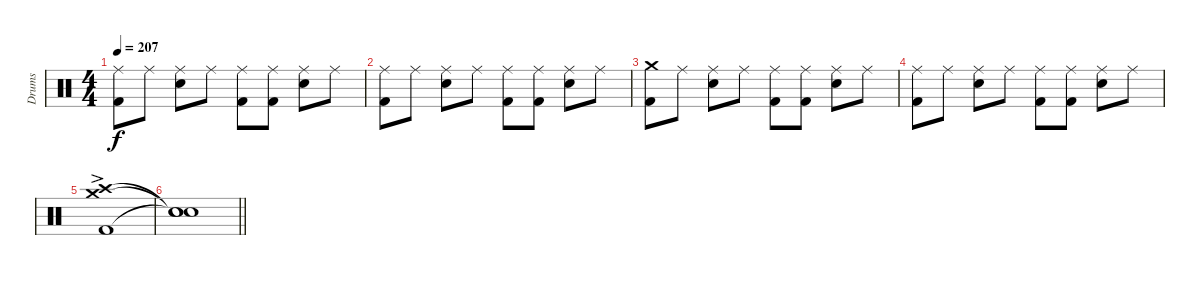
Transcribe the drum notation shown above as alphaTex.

\track ("Drums" "Drums") {instrument percussion}
\staff {score}
\articulation defaults
\ts (4 4)
\tempo 207
\clef neutral
\ks c
("Ride (middle)" "Kick (hit) 2").8{dy f} "Ride (middle)".8 ("Ride (middle)" "Electric Snare (hit)").8 "Ride (middle)".8 ("Ride (middle)" "Kick (hit) 2").8 ("Ride (middle)" "Kick (hit) 2").8 ("Ride (middle)" "Electric Snare (hit)").8 "Ride (middle)".8 |
("Ride (middle)" "Kick (hit) 2").8 "Ride (middle)".8 ("Ride (middle)" "Electric Snare (hit)").8 "Ride (middle)".8 ("Ride (middle)" "Kick (hit) 2").8 ("Ride (middle)" "Kick (hit) 2").8 ("Ride (middle)" "Electric Snare (hit)").8 "Ride (middle)".8 |
("Crash medium (hit)" "Kick (hit) 2").8 "Ride (middle)".8 ("Ride (middle)" "Electric Snare (hit)").8 "Ride (middle)".8 ("Ride (middle)" "Kick (hit) 2").8 ("Ride (middle)" "Kick (hit) 2").8 ("Ride (middle)" "Electric Snare (hit)").8 "Ride (middle)".8 |
("Ride (middle)" "Kick (hit) 2").8 "Ride (middle)".8 ("Ride (middle)" "Electric Snare (hit)").8 "Ride (middle)".8 ("Ride (middle)" "Kick (hit) 2").8 ("Ride (middle)" "Kick (hit) 2").8 ("Ride (middle)" "Electric Snare (hit)").8 "Ride (middle)".8 |
("Crash medium (hit)"{ac} "Crash high (hit)"{ac} "Kick (hit) 2"{ac}).1 |
\barLineRight lightlight
("Snare (hit)"{t} "Snare (hit)"{t} "Snare (hit)"{t}).1
